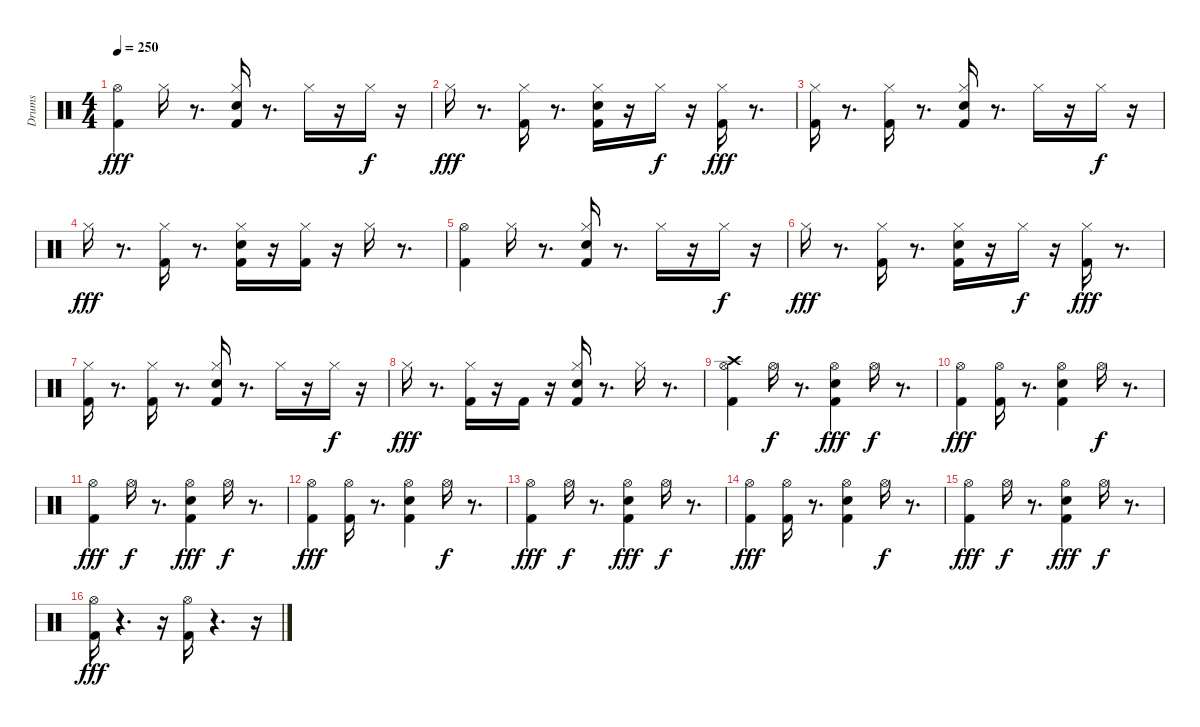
\track ("Drums" "Drums") {instrument percussion}
\staff {score}
\articulation defaults
\ts (4 4)
\tempo 250
\clef neutral
\ks c
("Hi-Hat (open)" "Kick (hit) 2").4{dy fff} "Hi-Hat (closed)".16 r.8{d} ("Kick (hit) 2" "Electric Snare (hit)" "Hi-Hat (closed)").16 r.8{d} "Hi-Hat (closed)".16 r.16 "Hi-Hat (closed)".16{dy f} r.16 |
"Hi-Hat (closed)".16{dy fff} r.8{d} ("Kick (hit) 2" "Hi-Hat (closed)").16 r.8{d} ("Kick (hit) 2" "Electric Snare (hit)" "Hi-Hat (closed)").16 r.16 "Hi-Hat (closed)".16{dy f} r.16 ("Kick (hit) 2" "Hi-Hat (closed)").16{dy fff} r.8{d} |
("Kick (hit) 2" "Hi-Hat (closed)").16 r.8{d} ("Hi-Hat (closed)" "Kick (hit) 2").16 r.8{d} ("Kick (hit) 2" "Electric Snare (hit)" "Hi-Hat (closed)").16 r.8{d} "Hi-Hat (closed)".16 r.16 "Hi-Hat (closed)".16{dy f} r.16 |
"Hi-Hat (closed)".16{dy fff} r.8{d} ("Kick (hit) 2" "Hi-Hat (closed)").16 r.8{d} ("Kick (hit) 2" "Electric Snare (hit)" "Hi-Hat (closed)").16 r.16 ("Hi-Hat (closed)" "Kick (hit) 2").16 r.16 "Hi-Hat (closed)".16 r.8{d} |
("Hi-Hat (open)" "Kick (hit) 2").4 "Hi-Hat (closed)".16 r.8{d} ("Kick (hit) 2" "Electric Snare (hit)" "Hi-Hat (closed)").16 r.8{d} "Hi-Hat (closed)".16 r.16 "Hi-Hat (closed)".16{dy f} r.16 |
"Hi-Hat (closed)".16{dy fff} r.8{d} ("Kick (hit) 2" "Hi-Hat (closed)").16 r.8{d} ("Kick (hit) 2" "Electric Snare (hit)" "Hi-Hat (closed)").16 r.16 "Hi-Hat (closed)".16{dy f} r.16 ("Kick (hit) 2" "Hi-Hat (closed)").16{dy fff} r.8{d} |
("Kick (hit) 2" "Hi-Hat (closed)").16 r.8{d} ("Hi-Hat (closed)" "Kick (hit) 2").16 r.8{d} ("Kick (hit) 2" "Electric Snare (hit)" "Hi-Hat (closed)").16 r.8{d} "Hi-Hat (closed)".16 r.16 "Hi-Hat (closed)".16{dy f} r.16 |
"Hi-Hat (closed)".16{dy fff} r.8{d} ("Kick (hit) 2" "Hi-Hat (closed)").16 r.16 "Kick (hit) 2".16 r.16 ("Kick (hit) 2" "Electric Snare (hit)" "Hi-Hat (closed)").16 r.8{d} "Hi-Hat (closed)".16 r.8{d} |
("Hi-Hat (open)" "Kick (hit) 2" "Crash high (hit)").4 "Hi-Hat (open)".16{dy f} r.8{d} ("Hi-Hat (open)" "Electric Snare (hit)" "Kick (hit) 2").4{dy fff} "Hi-Hat (open)".16{dy f} r.8{d} |
("Hi-Hat (open)" "Kick (hit) 2").4{dy fff} ("Hi-Hat (open)" "Kick (hit) 2").16 r.8{d} ("Hi-Hat (open)" "Electric Snare (hit)" "Kick (hit) 2").4 "Hi-Hat (open)".16{dy f} r.8{d} |
("Kick (hit) 2" "Hi-Hat (open)").4{dy fff} "Hi-Hat (open)".16{dy f} r.8{d} ("Hi-Hat (open)" "Electric Snare (hit)" "Kick (hit) 2").4{dy fff} "Hi-Hat (open)".16{dy f} r.8{d} |
("Hi-Hat (open)" "Kick (hit) 2").4{dy fff} ("Hi-Hat (open)" "Kick (hit) 2").16 r.8{d} ("Hi-Hat (open)" "Electric Snare (hit)" "Kick (hit) 2").4 "Hi-Hat (open)".16{dy f} r.8{d} |
("Kick (hit) 2" "Hi-Hat (open)").4{dy fff} "Hi-Hat (open)".16{dy f} r.8{d} ("Hi-Hat (open)" "Electric Snare (hit)" "Kick (hit) 2").4{dy fff} "Hi-Hat (open)".16{dy f} r.8{d} |
("Hi-Hat (open)" "Kick (hit) 2").4{dy fff} ("Hi-Hat (open)" "Kick (hit) 2").16 r.8{d} ("Hi-Hat (open)" "Electric Snare (hit)" "Kick (hit) 2").4 "Hi-Hat (open)".16{dy f} r.8{d} |
("Kick (hit) 2" "Hi-Hat (open)").4{dy fff} "Hi-Hat (open)".16{dy f} r.8{d} ("Hi-Hat (open)" "Electric Snare (hit)" "Kick (hit) 2").4{dy fff} "Hi-Hat (open)".16{dy f} r.8{d} |
("Kick (hit) 2" "Hi-Hat (open)").16{dy fff} r.4{d} r.16 ("Hi-Hat (open)" "Kick (hit) 2").16 r.4{d} r.16
